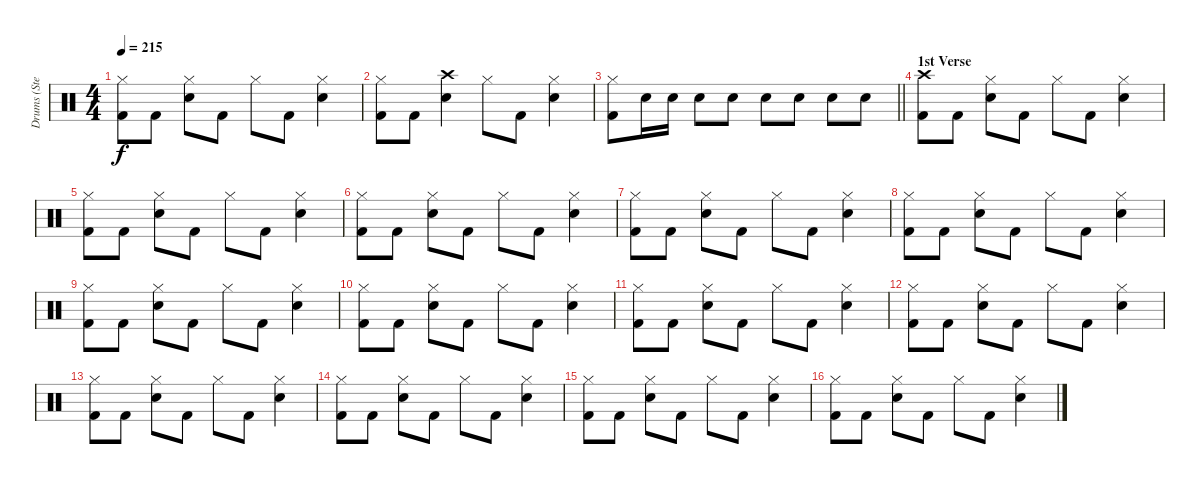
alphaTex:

\track ("Drums (Steven)" "Drums (Ste") {instrument percussion}
\staff {score}
\articulation defaults
\ts (4 4)
\tempo 215
\clef neutral
\ks c
("Hi-Hat (closed)" "Kick (hit) 2").8{dy f} "Kick (hit) 2".8 ("Hi-Hat (closed)" "Snare (hit) 2").8 "Kick (hit) 2".8 "Hi-Hat (closed)".8 "Kick (hit) 2".8 ("Hi-Hat (closed)" "Snare (hit) 2").4 |
("Hi-Hat (closed)" "Kick (hit) 2").8 "Kick (hit) 2".8 ("Crash high (hit)" "Snare (hit) 2").4 "Hi-Hat (closed)".8 "Kick (hit) 2".8 ("Hi-Hat (closed)" "Snare (hit) 2").4 |
\barLineRight lightlight
("Hi-Hat (closed)" "Kick (hit) 2").8 "Snare (hit) 2".16 "Snare (hit) 2".16 "Snare (hit) 2".8 "Snare (hit) 2".8 "Snare (hit) 2".8 "Snare (hit) 2".8 "Snare (hit) 2".8 "Snare (hit) 2".8 |
\section ("" "1st Verse")
("Crash high (hit)" "Kick (hit) 2").8 "Kick (hit) 2".8 ("Hi-Hat (closed)" "Snare (hit) 2").8 "Kick (hit) 2".8 "Hi-Hat (closed)".8 "Kick (hit) 2".8 ("Hi-Hat (closed)" "Snare (hit) 2").4 |
("Hi-Hat (closed)" "Kick (hit) 2").8 "Kick (hit) 2".8 ("Hi-Hat (closed)" "Snare (hit) 2").8 "Kick (hit) 2".8 "Hi-Hat (closed)".8 "Kick (hit) 2".8 ("Hi-Hat (closed)" "Snare (hit) 2").4 |
("Hi-Hat (closed)" "Kick (hit) 2").8 "Kick (hit) 2".8 ("Hi-Hat (closed)" "Snare (hit) 2").8 "Kick (hit) 2".8 "Hi-Hat (closed)".8 "Kick (hit) 2".8 ("Hi-Hat (closed)" "Snare (hit) 2").4 |
("Hi-Hat (closed)" "Kick (hit) 2").8 "Kick (hit) 2".8 ("Hi-Hat (closed)" "Snare (hit) 2").8 "Kick (hit) 2".8 "Hi-Hat (closed)".8 "Kick (hit) 2".8 ("Hi-Hat (closed)" "Snare (hit) 2").4 |
("Hi-Hat (closed)" "Kick (hit) 2").8 "Kick (hit) 2".8 ("Hi-Hat (closed)" "Snare (hit) 2").8 "Kick (hit) 2".8 "Hi-Hat (closed)".8 "Kick (hit) 2".8 ("Hi-Hat (closed)" "Snare (hit) 2").4 |
("Hi-Hat (closed)" "Kick (hit) 2").8 "Kick (hit) 2".8 ("Hi-Hat (closed)" "Snare (hit) 2").8 "Kick (hit) 2".8 "Hi-Hat (closed)".8 "Kick (hit) 2".8 ("Hi-Hat (closed)" "Snare (hit) 2").4 |
("Hi-Hat (closed)" "Kick (hit) 2").8 "Kick (hit) 2".8 ("Hi-Hat (closed)" "Snare (hit) 2").8 "Kick (hit) 2".8 "Hi-Hat (closed)".8 "Kick (hit) 2".8 ("Hi-Hat (closed)" "Snare (hit) 2").4 |
("Hi-Hat (closed)" "Kick (hit) 2").8 "Kick (hit) 2".8 ("Hi-Hat (closed)" "Snare (hit) 2").8 "Kick (hit) 2".8 "Hi-Hat (closed)".8 "Kick (hit) 2".8 ("Hi-Hat (closed)" "Snare (hit) 2").4 |
("Hi-Hat (closed)" "Kick (hit) 2").8 "Kick (hit) 2".8 ("Hi-Hat (closed)" "Snare (hit) 2").8 "Kick (hit) 2".8 "Hi-Hat (closed)".8 "Kick (hit) 2".8 ("Hi-Hat (closed)" "Snare (hit) 2").4 |
("Hi-Hat (closed)" "Kick (hit) 2").8 "Kick (hit) 2".8 ("Hi-Hat (closed)" "Snare (hit) 2").8 "Kick (hit) 2".8 "Hi-Hat (closed)".8 "Kick (hit) 2".8 ("Hi-Hat (closed)" "Snare (hit) 2").4 |
("Hi-Hat (closed)" "Kick (hit) 2").8 "Kick (hit) 2".8 ("Hi-Hat (closed)" "Snare (hit) 2").8 "Kick (hit) 2".8 "Hi-Hat (closed)".8 "Kick (hit) 2".8 ("Hi-Hat (closed)" "Snare (hit) 2").4 |
("Hi-Hat (closed)" "Kick (hit) 2").8 "Kick (hit) 2".8 ("Hi-Hat (closed)" "Snare (hit) 2").8 "Kick (hit) 2".8 "Hi-Hat (closed)".8 "Kick (hit) 2".8 ("Hi-Hat (closed)" "Snare (hit) 2").4 |
("Hi-Hat (closed)" "Kick (hit) 2").8 "Kick (hit) 2".8 ("Hi-Hat (closed)" "Snare (hit) 2").8 "Kick (hit) 2".8 "Hi-Hat (closed)".8 "Kick (hit) 2".8 ("Hi-Hat (closed)" "Snare (hit) 2").4
